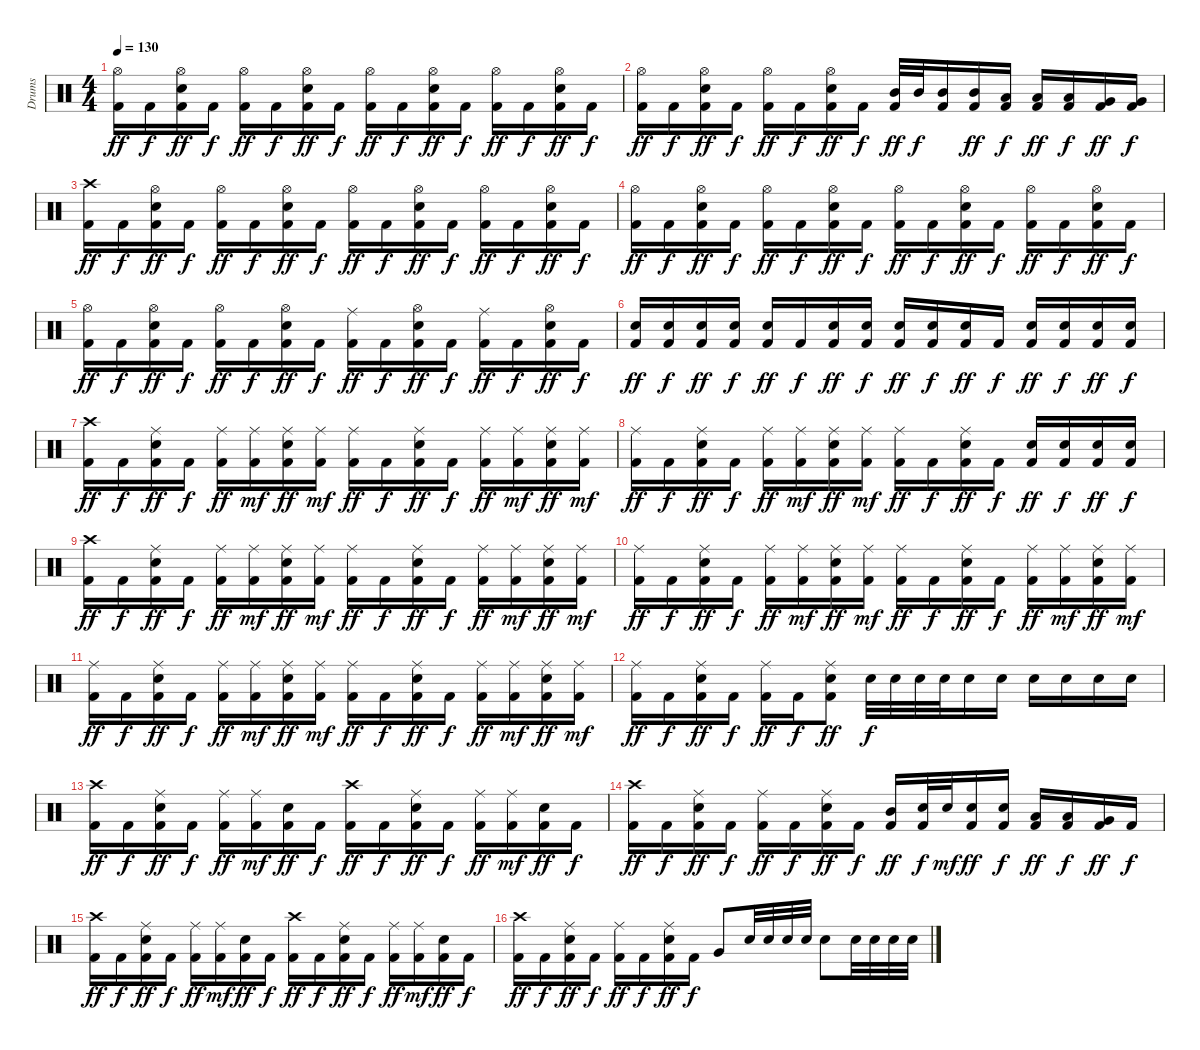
\track ("Drums" "Drums") {instrument percussion}
\staff {score}
\articulation defaults
\ts (4 4)
\tempo 130
\clef neutral
\ks c
("Hi-Hat (open)" "Kick (hit) 2").16{dy ff} "Kick (hit) 2".16{dy f} ("Hi-Hat (open)" "Electric Snare (hit)" "Kick (hit) 2").16{dy ff} "Kick (hit) 2".16{dy f} ("Hi-Hat (open)" "Kick (hit) 2").16{dy ff} "Kick (hit) 2".16{dy f} ("Hi-Hat (open)" "Electric Snare (hit)" "Kick (hit) 2").16{dy ff} "Kick (hit) 2".16{dy f} ("Hi-Hat (open)" "Kick (hit) 2").16{dy ff} "Kick (hit) 2".16{dy f} ("Hi-Hat (open)" "Electric Snare (hit)" "Kick (hit) 2").16{dy ff} "Kick (hit) 2".16{dy f} ("Hi-Hat (open)" "Kick (hit) 2").16{dy ff} "Kick (hit) 2".16{dy f} ("Hi-Hat (open)" "Electric Snare (hit)" "Kick (hit) 2").16{dy ff} "Kick (hit) 2".16{dy f} |
("Hi-Hat (open)" "Kick (hit) 2").16{dy ff} "Kick (hit) 2".16{dy f} ("Hi-Hat (open)" "Electric Snare (hit)" "Kick (hit) 2").16{dy ff} "Kick (hit) 2".16{dy f} ("Hi-Hat (open)" "Kick (hit) 2").16{dy ff} "Kick (hit) 2".16{dy f} ("Hi-Hat (open)" "Electric Snare (hit)" "Kick (hit) 2").16{dy ff} "Kick (hit) 2".16{dy f} ("Mid Tom (hit)" "Kick (hit) 2").32{dy ff} "Mid Tom (hit)".32{dy f} ("Mid Tom (hit)" "Kick (hit) 2").16 ("Mid Tom (hit)" "Kick (hit) 2").16{dy ff} ("Low Tom (hit)" "Kick (hit) 2").16{dy f} ("Low Tom (hit)" "Kick (hit) 2").16{dy ff} ("Low Tom (hit)" "Kick (hit) 2").16{dy f} ("Very Low Tom (hit)" "Kick (hit) 2").16{dy ff} ("Very Low Tom (hit)" "Kick (hit) 2").16{dy f} |
("Crash high (hit)" "Kick (hit) 2").16{dy ff} "Kick (hit) 2".16{dy f} ("Hi-Hat (open)" "Electric Snare (hit)" "Kick (hit) 2").16{dy ff} "Kick (hit) 2".16{dy f} ("Hi-Hat (open)" "Kick (hit) 2").16{dy ff} "Kick (hit) 2".16{dy f} ("Hi-Hat (open)" "Electric Snare (hit)" "Kick (hit) 2").16{dy ff} "Kick (hit) 2".16{dy f} ("Hi-Hat (open)" "Kick (hit) 2").16{dy ff} "Kick (hit) 2".16{dy f} ("Hi-Hat (open)" "Electric Snare (hit)" "Kick (hit) 2").16{dy ff} "Kick (hit) 2".16{dy f} ("Hi-Hat (open)" "Kick (hit) 2").16{dy ff} "Kick (hit) 2".16{dy f} ("Hi-Hat (open)" "Electric Snare (hit)" "Kick (hit) 2").16{dy ff} "Kick (hit) 2".16{dy f} |
("Hi-Hat (open)" "Kick (hit) 2").16{dy ff} "Kick (hit) 2".16{dy f} ("Hi-Hat (open)" "Electric Snare (hit)" "Kick (hit) 2").16{dy ff} "Kick (hit) 2".16{dy f} ("Hi-Hat (open)" "Kick (hit) 2").16{dy ff} "Kick (hit) 2".16{dy f} ("Hi-Hat (open)" "Electric Snare (hit)" "Kick (hit) 2").16{dy ff} "Kick (hit) 2".16{dy f} ("Hi-Hat (open)" "Kick (hit) 2").16{dy ff} "Kick (hit) 2".16{dy f} ("Hi-Hat (open)" "Electric Snare (hit)" "Kick (hit) 2").16{dy ff} "Kick (hit) 2".16{dy f} ("Hi-Hat (open)" "Kick (hit) 2").16{dy ff} "Kick (hit) 2".16{dy f} ("Hi-Hat (open)" "Electric Snare (hit)" "Kick (hit) 2").16{dy ff} "Kick (hit) 2".16{dy f} |
("Hi-Hat (open)" "Kick (hit) 2").16{dy ff} "Kick (hit) 2".16{dy f} ("Hi-Hat (open)" "Electric Snare (hit)" "Kick (hit) 2").16{dy ff} "Kick (hit) 2".16{dy f} ("Hi-Hat (open)" "Kick (hit) 2").16{dy ff} "Kick (hit) 2".16{dy f} ("Hi-Hat (open)" "Electric Snare (hit)" "Kick (hit) 2").16{dy ff} "Kick (hit) 2".16{dy f} ("Ride (middle)" "Kick (hit) 2").16{dy ff} "Kick (hit) 2".16{dy f} ("Hi-Hat (open)" "Electric Snare (hit)" "Kick (hit) 2").16{dy ff} "Kick (hit) 2".16{dy f} ("Ride (middle)" "Kick (hit) 2").16{dy ff} "Kick (hit) 2".16{dy f} ("Hi-Hat (open)" "Electric Snare (hit)" "Kick (hit) 2").16{dy ff} "Kick (hit) 2".16{dy f} |
("Electric Snare (hit)" "Kick (hit) 2").16{dy ff} ("Electric Snare (hit)" "Kick (hit) 2").16{dy f} ("Electric Snare (hit)" "Kick (hit) 2").16{dy ff} ("Electric Snare (hit)" "Kick (hit) 2").16{dy f} ("Electric Snare (hit)" "Kick (hit) 2").16{dy ff} "Kick (hit) 2".16{dy f} ("Electric Snare (hit)" "Kick (hit) 2").16{dy ff} ("Electric Snare (hit)" "Kick (hit) 2").16{dy f} ("Electric Snare (hit)" "Kick (hit) 2").16{dy ff} ("Electric Snare (hit)" "Kick (hit) 2").16{dy f} ("Electric Snare (hit)" "Kick (hit) 2").16{dy ff} "Kick (hit) 2".16{dy f} ("Electric Snare (hit)" "Kick (hit) 2").16{dy ff} ("Electric Snare (hit)" "Kick (hit) 2").16{dy f} ("Electric Snare (hit)" "Kick (hit) 2").16{dy ff} ("Electric Snare (hit)" "Kick (hit) 2").16{dy f} |
("Crash high (hit)" "Kick (hit) 2").16{dy ff} "Kick (hit) 2".16{dy f} ("Ride (middle)" "Electric Snare (hit)" "Kick (hit) 2").16{dy ff} "Kick (hit) 2".16{dy f} ("Ride (middle)" "Kick (hit) 2").16{dy ff} ("Ride (middle)" "Kick (hit) 2").16{dy mf} ("Ride (middle)" "Electric Snare (hit)" "Kick (hit) 2").16{dy ff} ("Ride (middle)" "Kick (hit) 2").16{dy mf} ("Ride (middle)" "Kick (hit) 2").16{dy ff} "Kick (hit) 2".16{dy f} ("Ride (middle)" "Electric Snare (hit)" "Kick (hit) 2").16{dy ff} "Kick (hit) 2".16{dy f} ("Ride (middle)" "Kick (hit) 2").16{dy ff} ("Ride (middle)" "Kick (hit) 2").16{dy mf} ("Ride (middle)" "Electric Snare (hit)" "Kick (hit) 2").16{dy ff} ("Ride (middle)" "Kick (hit) 2").16{dy mf} |
("Ride (middle)" "Kick (hit) 2").16{dy ff} "Kick (hit) 2".16{dy f} ("Ride (middle)" "Electric Snare (hit)" "Kick (hit) 2").16{dy ff} "Kick (hit) 2".16{dy f} ("Ride (middle)" "Kick (hit) 2").16{dy ff} ("Ride (middle)" "Kick (hit) 2").16{dy mf} ("Ride (middle)" "Electric Snare (hit)" "Kick (hit) 2").16{dy ff} ("Ride (middle)" "Kick (hit) 2").16{dy mf} ("Ride (middle)" "Kick (hit) 2").16{dy ff} "Kick (hit) 2".16{dy f} ("Ride (middle)" "Electric Snare (hit)" "Kick (hit) 2").16{dy ff} "Kick (hit) 2".16{dy f} ("Electric Snare (hit)" "Kick (hit) 2").16{dy ff} ("Electric Snare (hit)" "Kick (hit) 2").16{dy f} ("Electric Snare (hit)" "Kick (hit) 2").16{dy ff} ("Electric Snare (hit)" "Kick (hit) 2").16{dy f} |
("Crash high (hit)" "Kick (hit) 2").16{dy ff} "Kick (hit) 2".16{dy f} ("Ride (middle)" "Electric Snare (hit)" "Kick (hit) 2").16{dy ff} "Kick (hit) 2".16{dy f} ("Ride (middle)" "Kick (hit) 2").16{dy ff} ("Ride (middle)" "Kick (hit) 2").16{dy mf} ("Ride (middle)" "Electric Snare (hit)" "Kick (hit) 2").16{dy ff} ("Ride (middle)" "Kick (hit) 2").16{dy mf} ("Ride (middle)" "Kick (hit) 2").16{dy ff} "Kick (hit) 2".16{dy f} ("Ride (middle)" "Electric Snare (hit)" "Kick (hit) 2").16{dy ff} "Kick (hit) 2".16{dy f} ("Ride (middle)" "Kick (hit) 2").16{dy ff} ("Ride (middle)" "Kick (hit) 2").16{dy mf} ("Ride (middle)" "Electric Snare (hit)" "Kick (hit) 2").16{dy ff} ("Ride (middle)" "Kick (hit) 2").16{dy mf} |
("Ride (middle)" "Kick (hit) 2").16{dy ff} "Kick (hit) 2".16{dy f} ("Ride (middle)" "Electric Snare (hit)" "Kick (hit) 2").16{dy ff} "Kick (hit) 2".16{dy f} ("Ride (middle)" "Kick (hit) 2").16{dy ff} ("Ride (middle)" "Kick (hit) 2").16{dy mf} ("Ride (middle)" "Electric Snare (hit)" "Kick (hit) 2").16{dy ff} ("Ride (middle)" "Kick (hit) 2").16{dy mf} ("Ride (middle)" "Kick (hit) 2").16{dy ff} "Kick (hit) 2".16{dy f} ("Ride (middle)" "Electric Snare (hit)" "Kick (hit) 2").16{dy ff} "Kick (hit) 2".16{dy f} ("Ride (middle)" "Kick (hit) 2").16{dy ff} ("Ride (middle)" "Kick (hit) 2").16{dy mf} ("Ride (middle)" "Electric Snare (hit)" "Kick (hit) 2").16{dy ff} ("Ride (middle)" "Kick (hit) 2").16{dy mf} |
("Ride (middle)" "Kick (hit) 2").16{dy ff} "Kick (hit) 2".16{dy f} ("Ride (middle)" "Electric Snare (hit)" "Kick (hit) 2").16{dy ff} "Kick (hit) 2".16{dy f} ("Ride (middle)" "Kick (hit) 2").16{dy ff} ("Ride (middle)" "Kick (hit) 2").16{dy mf} ("Ride (middle)" "Electric Snare (hit)" "Kick (hit) 2").16{dy ff} ("Ride (middle)" "Kick (hit) 2").16{dy mf} ("Ride (middle)" "Kick (hit) 2").16{dy ff} "Kick (hit) 2".16{dy f} ("Ride (middle)" "Electric Snare (hit)" "Kick (hit) 2").16{dy ff} "Kick (hit) 2".16{dy f} ("Ride (middle)" "Kick (hit) 2").16{dy ff} ("Ride (middle)" "Kick (hit) 2").16{dy mf} ("Ride (middle)" "Electric Snare (hit)" "Kick (hit) 2").16{dy ff} ("Ride (middle)" "Kick (hit) 2").16{dy mf} |
("Ride (middle)" "Kick (hit) 2").16{dy ff} "Kick (hit) 2".16{dy f} ("Ride (middle)" "Electric Snare (hit)" "Kick (hit) 2").16{dy ff} "Kick (hit) 2".16{dy f} ("Ride (middle)" "Kick (hit) 2").16{dy ff} "Kick (hit) 2".16{dy f} ("Ride (middle)" "Electric Snare (hit)" "Kick (hit) 2").8{dy ff} "Electric Snare (hit)".32{dy f} "Electric Snare (hit)".32 "Electric Snare (hit)".32 "Electric Snare (hit)".32 "Electric Snare (hit)".16 "Electric Snare (hit)".16 "Electric Snare (hit)".16 "Electric Snare (hit)".16 "Electric Snare (hit)".16 "Electric Snare (hit)".16 |
("Crash high (hit)" "Kick (hit) 2").16{dy ff} "Kick (hit) 2".16{dy f} ("Ride (middle)" "Electric Snare (hit)" "Kick (hit) 2").16{dy ff} "Kick (hit) 2".16{dy f} ("Ride (middle)" "Kick (hit) 2").16{dy ff} ("Ride (middle)" "Kick (hit) 2").16{dy mf} ("Electric Snare (hit)" "Kick (hit) 2").16{dy ff} "Kick (hit) 2".16{dy f} ("Crash high (hit)" "Kick (hit) 2").16{dy ff} "Kick (hit) 2".16{dy f} ("Ride (middle)" "Electric Snare (hit)" "Kick (hit) 2").16{dy ff} "Kick (hit) 2".16{dy f} ("Ride (middle)" "Kick (hit) 2").16{dy ff} ("Ride (middle)" "Kick (hit) 2").16{dy mf} ("Electric Snare (hit)" "Kick (hit) 2").16{dy ff} "Kick (hit) 2".16{dy f} |
("Crash high (hit)" "Kick (hit) 2").16{dy ff} "Kick (hit) 2".16{dy f} ("Ride (middle)" "Electric Snare (hit)" "Kick (hit) 2").16{dy ff} "Kick (hit) 2".16{dy f} ("Ride (middle)" "Kick (hit) 2").16{dy ff} "Kick (hit) 2".16{dy f} ("Ride (middle)" "Electric Snare (hit)" "Kick (hit) 2").16{dy ff} "Kick (hit) 2".16{dy f} ("Mid Tom (hit)" "Kick (hit) 2").16{dy ff} ("Electric Snare (hit)" "Kick (hit) 2").32{dy f} "Electric Snare (hit)".32{dy mf} ("Electric Snare (hit)" "Kick (hit) 2").16{dy ff} ("Electric Snare (hit)" "Kick (hit) 2").16{dy f} ("Low Tom (hit)" "Kick (hit) 2").16{dy ff} ("Low Tom (hit)" "Kick (hit) 2").16{dy f} ("Very Low Tom (hit)" "Kick (hit) 2").16{dy ff} "Kick (hit) 2".16{dy f} |
("Crash high (hit)" "Kick (hit) 2").16{dy ff} "Kick (hit) 2".16{dy f} ("Ride (middle)" "Electric Snare (hit)" "Kick (hit) 2").16{dy ff} "Kick (hit) 2".16{dy f} ("Ride (middle)" "Kick (hit) 2").16{dy ff} ("Ride (middle)" "Kick (hit) 2").16{dy mf} ("Electric Snare (hit)" "Kick (hit) 2").16{dy ff} "Kick (hit) 2".16{dy f} ("Crash high (hit)" "Kick (hit) 2").16{dy ff} "Kick (hit) 2".16{dy f} ("Ride (middle)" "Electric Snare (hit)" "Kick (hit) 2").16{dy ff} "Kick (hit) 2".16{dy f} ("Ride (middle)" "Kick (hit) 2").16{dy ff} ("Ride (middle)" "Kick (hit) 2").16{dy mf} ("Electric Snare (hit)" "Kick (hit) 2").16{dy ff} "Kick (hit) 2".16{dy f} |
("Crash high (hit)" "Kick (hit) 2").16{dy ff} "Kick (hit) 2".16{dy f} ("Ride (middle)" "Electric Snare (hit)" "Kick (hit) 2").16{dy ff} "Kick (hit) 2".16{dy f} ("Ride (middle)" "Kick (hit) 2").16{dy ff} "Kick (hit) 2".16{dy f} ("Ride (middle)" "Electric Snare (hit)" "Kick (hit) 2").16{dy ff} "Kick (hit) 2".16{dy f} "Very Low Tom (hit)".8 "Electric Snare (hit)".32 "Electric Snare (hit)".32 "Electric Snare (hit)".32 "Electric Snare (hit)".32 "Electric Snare (hit)".8 "Electric Snare (hit)".32 "Electric Snare (hit)".32 "Electric Snare (hit)".32 "Electric Snare (hit)".32
